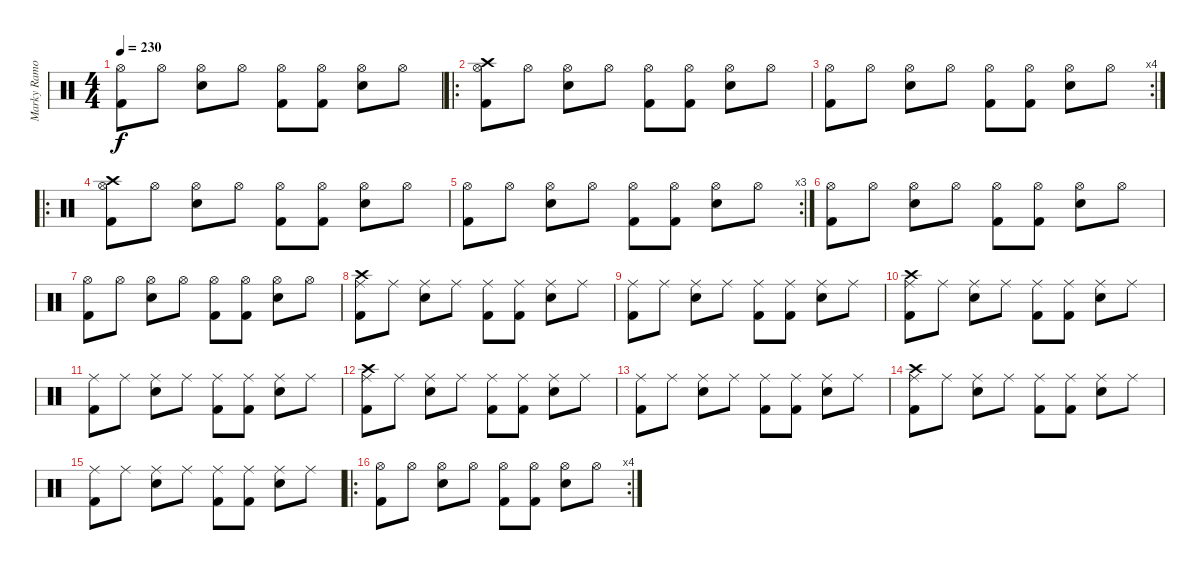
\track ("Marky Ramone" "Marky Ramo") {instrument percussion}
\staff {score}
\articulation defaults
\ts (4 4)
\tempo 230
\clef neutral
\ks c
("Hi-Hat (open)" "Kick (hit) 2").8{dy f} "Hi-Hat (open)".8 ("Hi-Hat (open)" "Electric Snare (hit)").8 "Hi-Hat (open)".8 ("Hi-Hat (open)" "Kick (hit) 2").8 ("Hi-Hat (open)" "Kick (hit) 2").8 ("Hi-Hat (open)" "Electric Snare (hit)").8 "Hi-Hat (open)".8 |
\ro
("Hi-Hat (open)" "Kick (hit) 2" "Crash high (hit)").8 "Hi-Hat (open)".8 ("Hi-Hat (open)" "Electric Snare (hit)").8 "Hi-Hat (open)".8 ("Hi-Hat (open)" "Kick (hit) 2").8 ("Hi-Hat (open)" "Kick (hit) 2").8 ("Hi-Hat (open)" "Electric Snare (hit)").8 "Hi-Hat (open)".8 |
\rc 4
("Hi-Hat (open)" "Kick (hit) 2").8 "Hi-Hat (open)".8 ("Hi-Hat (open)" "Electric Snare (hit)").8 "Hi-Hat (open)".8 ("Hi-Hat (open)" "Kick (hit) 2").8 ("Hi-Hat (open)" "Kick (hit) 2").8 ("Hi-Hat (open)" "Electric Snare (hit)").8 "Hi-Hat (open)".8 |
\ro
("Hi-Hat (open)" "Kick (hit) 2" "Crash high (hit)").8 "Hi-Hat (open)".8 ("Hi-Hat (open)" "Electric Snare (hit)").8 "Hi-Hat (open)".8 ("Hi-Hat (open)" "Kick (hit) 2").8 ("Hi-Hat (open)" "Kick (hit) 2").8 ("Hi-Hat (open)" "Electric Snare (hit)").8 "Hi-Hat (open)".8 |
\rc 3
("Hi-Hat (open)" "Kick (hit) 2").8 "Hi-Hat (open)".8 ("Hi-Hat (open)" "Electric Snare (hit)").8 "Hi-Hat (open)".8 ("Hi-Hat (open)" "Kick (hit) 2").8 ("Hi-Hat (open)" "Kick (hit) 2").8 ("Hi-Hat (open)" "Electric Snare (hit)").8 "Hi-Hat (open)".8 |
("Hi-Hat (open)" "Kick (hit) 2").8 "Hi-Hat (open)".8 ("Hi-Hat (open)" "Electric Snare (hit)").8 "Hi-Hat (open)".8 ("Hi-Hat (open)" "Kick (hit) 2").8 ("Hi-Hat (open)" "Kick (hit) 2").8 ("Hi-Hat (open)" "Electric Snare (hit)").8 "Hi-Hat (open)".8 |
("Hi-Hat (open)" "Kick (hit) 2").8 "Hi-Hat (open)".8 ("Hi-Hat (open)" "Electric Snare (hit)").8 "Hi-Hat (open)".8 ("Hi-Hat (open)" "Kick (hit) 2").8 ("Hi-Hat (open)" "Kick (hit) 2").8 ("Hi-Hat (open)" "Electric Snare (hit)").8 "Hi-Hat (open)".8 |
("Ride (middle)" "Kick (hit) 2" "Crash high (hit)").8 "Ride (middle)".8 ("Ride (middle)" "Electric Snare (hit)").8 "Ride (middle)".8 ("Ride (middle)" "Kick (hit) 2").8 ("Ride (middle)" "Kick (hit) 2").8 ("Ride (middle)" "Electric Snare (hit)").8 "Ride (middle)".8 |
("Ride (middle)" "Kick (hit) 2").8 "Ride (middle)".8 ("Ride (middle)" "Electric Snare (hit)").8 "Ride (middle)".8 ("Ride (middle)" "Kick (hit) 2").8 ("Ride (middle)" "Kick (hit) 2").8 ("Ride (middle)" "Electric Snare (hit)").8 "Ride (middle)".8 |
("Ride (middle)" "Kick (hit) 2" "Crash high (hit)").8 "Ride (middle)".8 ("Ride (middle)" "Electric Snare (hit)").8 "Ride (middle)".8 ("Ride (middle)" "Kick (hit) 2").8 ("Ride (middle)" "Kick (hit) 2").8 ("Ride (middle)" "Electric Snare (hit)").8 "Ride (middle)".8 |
("Ride (middle)" "Kick (hit) 2").8 "Ride (middle)".8 ("Ride (middle)" "Electric Snare (hit)").8 "Ride (middle)".8 ("Ride (middle)" "Kick (hit) 2").8 ("Ride (middle)" "Kick (hit) 2").8 ("Ride (middle)" "Electric Snare (hit)").8 "Ride (middle)".8 |
("Ride (middle)" "Kick (hit) 2" "Crash high (hit)").8 "Ride (middle)".8 ("Ride (middle)" "Electric Snare (hit)").8 "Ride (middle)".8 ("Ride (middle)" "Kick (hit) 2").8 ("Ride (middle)" "Kick (hit) 2").8 ("Ride (middle)" "Electric Snare (hit)").8 "Ride (middle)".8 |
("Ride (middle)" "Kick (hit) 2").8 "Ride (middle)".8 ("Ride (middle)" "Electric Snare (hit)").8 "Ride (middle)".8 ("Ride (middle)" "Kick (hit) 2").8 ("Ride (middle)" "Kick (hit) 2").8 ("Ride (middle)" "Electric Snare (hit)").8 "Ride (middle)".8 |
("Ride (middle)" "Kick (hit) 2" "Crash high (hit)").8 "Ride (middle)".8 ("Ride (middle)" "Electric Snare (hit)").8 "Ride (middle)".8 ("Ride (middle)" "Kick (hit) 2").8 ("Ride (middle)" "Kick (hit) 2").8 ("Ride (middle)" "Electric Snare (hit)").8 "Ride (middle)".8 |
("Ride (middle)" "Kick (hit) 2").8 "Ride (middle)".8 ("Ride (middle)" "Electric Snare (hit)").8 "Ride (middle)".8 ("Ride (middle)" "Kick (hit) 2").8 ("Ride (middle)" "Kick (hit) 2").8 ("Ride (middle)" "Electric Snare (hit)").8 "Ride (middle)".8 |
\ro
\rc 4
("Hi-Hat (open)" "Kick (hit) 2").8 "Hi-Hat (open)".8 ("Hi-Hat (open)" "Electric Snare (hit)").8 "Hi-Hat (open)".8 ("Hi-Hat (open)" "Kick (hit) 2").8 ("Hi-Hat (open)" "Kick (hit) 2").8 ("Hi-Hat (open)" "Electric Snare (hit)").8 "Hi-Hat (open)".8
